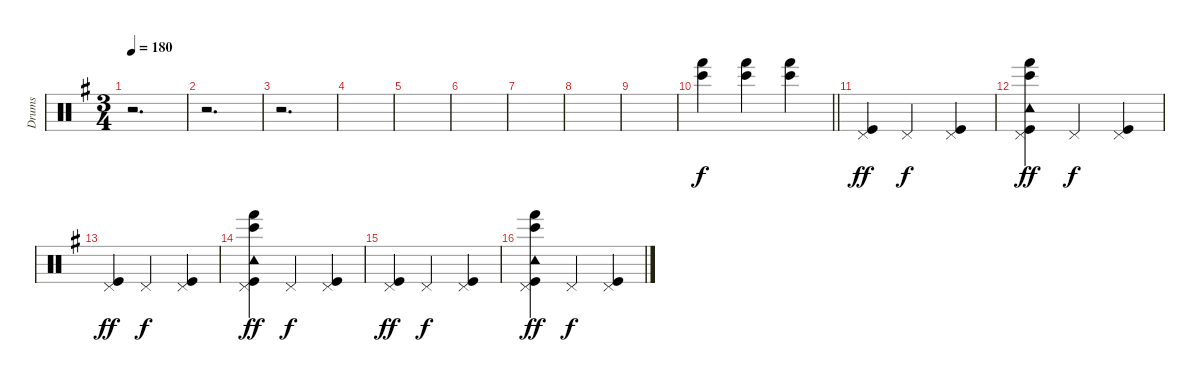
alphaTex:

\track ("Drums" "Drums") {instrument percussion bank 24}
\staff {score}
\articulation defaults
\ts (3 4)
\tempo 180
\clef neutral
\ks eminor
r.2{d dy f} |
r.2{d} |
r.2{d} |
|
|
|
|
|
|
\barLineRight lightlight
("Bongo High (hit)" "Hand (hit)").4 ("Bongo High (hit)" "Hand (hit)").4 ("Bongo High (hit)" "Hand (hit)").4 |
("Pedal Hi-Hat (hit)" "Kick (hit)").4{dy ff} "Pedal Hi-Hat (hit)".4{dy f} ("Pedal Hi-Hat (hit)" "Kick (hit)").4 |
("Pedal Hi-Hat (hit)" "Tambourine (hit)" "Bongo High (hit)" "Hand (hit)" "Kick (hit)").4{dy ff} "Pedal Hi-Hat (hit)".4{dy f} ("Pedal Hi-Hat (hit)" "Kick (hit)").4 |
("Pedal Hi-Hat (hit)" "Kick (hit)").4{dy ff} "Pedal Hi-Hat (hit)".4{dy f} ("Pedal Hi-Hat (hit)" "Kick (hit)").4 |
("Pedal Hi-Hat (hit)" "Tambourine (hit)" "Bongo High (hit)" "Hand (hit)" "Kick (hit)").4{dy ff} "Pedal Hi-Hat (hit)".4{dy f} ("Pedal Hi-Hat (hit)" "Kick (hit)").4 |
("Pedal Hi-Hat (hit)" "Kick (hit)").4{dy ff} "Pedal Hi-Hat (hit)".4{dy f} ("Pedal Hi-Hat (hit)" "Kick (hit)").4 |
("Pedal Hi-Hat (hit)" "Tambourine (hit)" "Bongo High (hit)" "Hand (hit)" "Kick (hit)").4{dy ff} "Pedal Hi-Hat (hit)".4{dy f} ("Pedal Hi-Hat (hit)" "Kick (hit)").4
